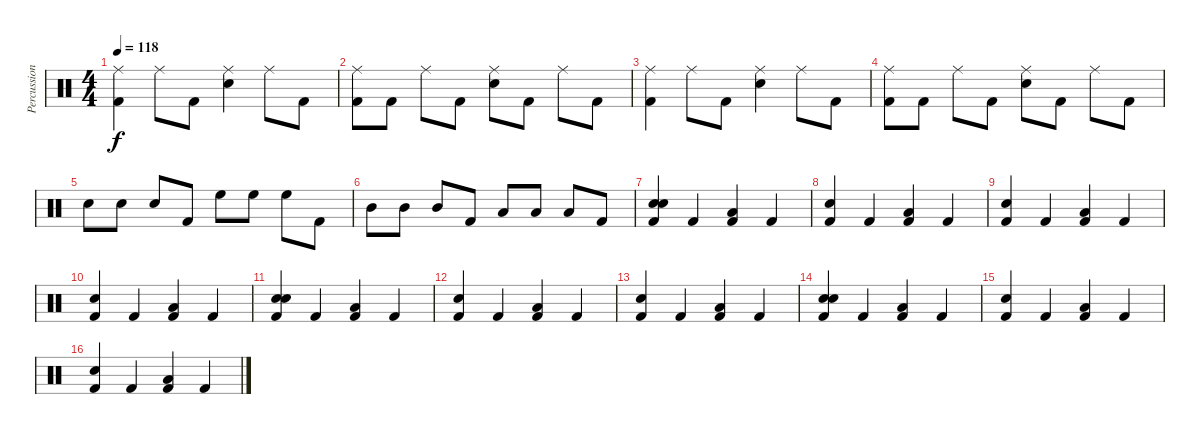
\track ("Percussion" "Percussion") {instrument percussion}
\staff {score}
\articulation defaults
\ts (4 4)
\tempo 118
\clef neutral
\ks c
("Ride (middle)" "Kick (hit) 2").4{dy f} "Ride (middle)".8 "Kick (hit) 2".8 ("Ride (middle)" "Electric Snare (hit)").4 "Ride (middle)".8 "Kick (hit) 2".8 |
("Ride (middle)" "Kick (hit) 2").8 "Kick (hit) 2".8 "Ride (middle)".8 "Kick (hit) 2".8 ("Ride (middle)" "Electric Snare (hit)").8 "Kick (hit) 2".8 "Ride (middle)".8 "Kick (hit) 2".8 |
("Ride (middle)" "Kick (hit) 2").4 "Ride (middle)".8 "Kick (hit) 2".8 ("Ride (middle)" "Electric Snare (hit)").4 "Ride (middle)".8 "Kick (hit) 2".8 |
("Ride (middle)" "Kick (hit) 2").8 "Kick (hit) 2".8 "Ride (middle)".8 "Kick (hit) 2".8 ("Ride (middle)" "Electric Snare (hit)").8 "Kick (hit) 2".8 "Ride (middle)".8 "Kick (hit) 2".8 |
"Electric Snare (hit)".8 "Electric Snare (hit)".8 "Electric Snare (hit)".8 "Kick (hit) 2".8 "High Floor Tom (hit)".8 "High Floor Tom (hit)".8 "High Floor Tom (hit)".8 "Kick (hit) 2".8 |
"Mid Tom (hit)".8 "Mid Tom (hit)".8 "Mid Tom (hit)".8 "Kick (hit) 2".8 "Low Floor Tom (hit)".8 "Low Floor Tom (hit)".8 "Low Floor Tom (hit)".8 "Kick (hit) 2".8 |
("Snare (hit) 2" "Electric Snare (hit)" "Kick (hit) 2").4 "Kick (hit) 2".4 ("Low Floor Tom (hit)" "Kick (hit) 2").4 "Kick (hit) 2".4 |
("Electric Snare (hit)" "Kick (hit) 2").4 "Kick (hit) 2".4 ("Low Floor Tom (hit)" "Kick (hit) 2").4 "Kick (hit) 2".4 |
("Electric Snare (hit)" "Kick (hit) 2").4 "Kick (hit) 2".4 ("Low Floor Tom (hit)" "Kick (hit) 2").4 "Kick (hit) 2".4 |
("Electric Snare (hit)" "Kick (hit) 2").4 "Kick (hit) 2".4 ("Low Floor Tom (hit)" "Kick (hit) 2").4 "Kick (hit) 2".4 |
("Snare (hit) 2" "Electric Snare (hit)" "Kick (hit) 2").4 "Kick (hit) 2".4 ("Low Floor Tom (hit)" "Kick (hit) 2").4 "Kick (hit) 2".4 |
("Electric Snare (hit)" "Kick (hit) 2").4 "Kick (hit) 2".4 ("Low Floor Tom (hit)" "Kick (hit) 2").4 "Kick (hit) 2".4 |
("Electric Snare (hit)" "Kick (hit) 2").4 "Kick (hit) 2".4 ("Low Floor Tom (hit)" "Kick (hit) 2").4 "Kick (hit) 2".4 |
("Snare (hit) 2" "Electric Snare (hit)" "Kick (hit) 2").4 "Kick (hit) 2".4 ("Low Floor Tom (hit)" "Kick (hit) 2").4 "Kick (hit) 2".4 |
("Electric Snare (hit)" "Kick (hit) 2").4 "Kick (hit) 2".4 ("Low Floor Tom (hit)" "Kick (hit) 2").4 "Kick (hit) 2".4 |
("Electric Snare (hit)" "Kick (hit) 2").4 "Kick (hit) 2".4 ("Low Floor Tom (hit)" "Kick (hit) 2").4 "Kick (hit) 2".4
